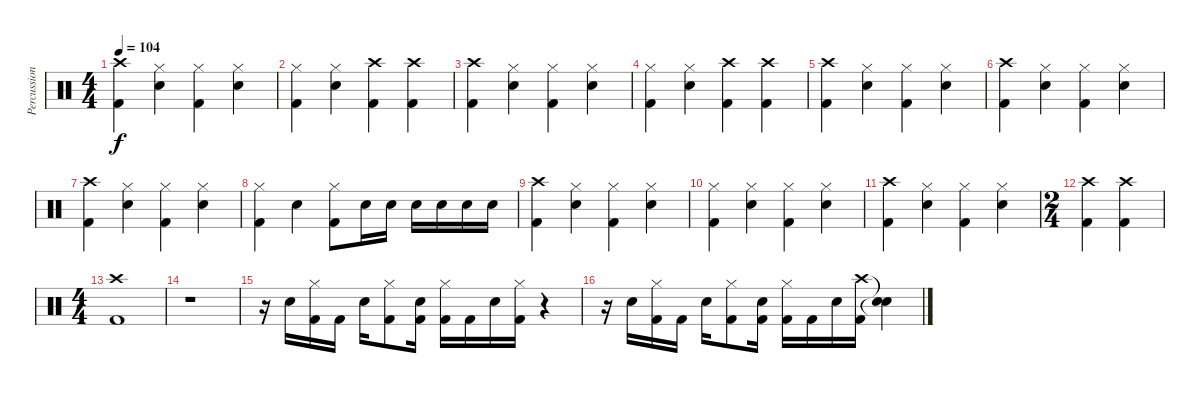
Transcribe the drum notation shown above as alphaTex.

\track ("Percussion" "Percussion") {instrument percussion}
\staff {score}
\articulation defaults
\ts (4 4)
\tempo 104
\clef neutral
\ks c
("Crash high (hit)" "Kick (hit) 2").4{dy f} ("Hi-Hat (closed)" "Snare (hit) 2").4 ("Hi-Hat (closed)" "Kick (hit) 2").4 ("Hi-Hat (closed)" "Snare (hit) 2").4 |
("Hi-Hat (closed)" "Kick (hit) 2").4 ("Hi-Hat (closed)" "Snare (hit) 2").4 ("Crash high (hit)" "Kick (hit) 2").4 ("Crash high (hit)" "Kick (hit) 2").4 |
("Crash high (hit)" "Kick (hit) 2").4 ("Hi-Hat (closed)" "Snare (hit) 2").4 ("Hi-Hat (closed)" "Kick (hit) 2").4 ("Hi-Hat (closed)" "Snare (hit) 2").4 |
("Hi-Hat (closed)" "Kick (hit) 2").4 ("Hi-Hat (closed)" "Snare (hit) 2").4 ("Crash high (hit)" "Kick (hit) 2").4 ("Crash high (hit)" "Kick (hit) 2").4 |
("Crash high (hit)" "Kick (hit) 2").4 ("Hi-Hat (closed)" "Snare (hit) 2").4 ("Hi-Hat (closed)" "Kick (hit) 2").4 ("Hi-Hat (closed)" "Snare (hit) 2").4 |
("Crash high (hit)" "Kick (hit) 2").4 ("Hi-Hat (closed)" "Snare (hit) 2").4 ("Hi-Hat (closed)" "Kick (hit) 2").4 ("Hi-Hat (closed)" "Snare (hit) 2").4 |
("Crash high (hit)" "Kick (hit) 2").4 ("Hi-Hat (closed)" "Snare (hit) 2").4 ("Hi-Hat (closed)" "Kick (hit) 2").4 ("Hi-Hat (closed)" "Snare (hit) 2").4 |
("Hi-Hat (closed)" "Kick (hit) 2").4 "Snare (hit) 2".4 ("Hi-Hat (closed)" "Kick (hit) 2").8 "Snare (hit) 2".16 "Snare (hit) 2".16 "Snare (hit) 2".16 "Snare (hit) 2".16 "Snare (hit) 2".16 "Snare (hit) 2".16 |
("Crash high (hit)" "Kick (hit) 2").4 ("Hi-Hat (closed)" "Snare (hit) 2").4 ("Hi-Hat (closed)" "Kick (hit) 2").4 ("Hi-Hat (closed)" "Snare (hit) 2").4 |
("Hi-Hat (closed)" "Kick (hit) 2").4 ("Hi-Hat (closed)" "Snare (hit) 2").4 ("Hi-Hat (closed)" "Kick (hit) 2").4 ("Hi-Hat (closed)" "Snare (hit) 2").4 |
("Crash high (hit)" "Kick (hit) 2").4 ("Hi-Hat (closed)" "Snare (hit) 2").4 ("Hi-Hat (closed)" "Kick (hit) 2").4 ("Hi-Hat (closed)" "Snare (hit) 2").4 |
\ts (2 4)
("Crash high (hit)" "Kick (hit) 2").4 ("Crash high (hit)" "Kick (hit) 2").4 |
\ts (4 4)
("Crash high (hit)" "Kick (hit) 2").1 |
r.1 |
r.16 "Snare (hit) 2".16 ("Hi-Hat (closed)" "Kick (hit) 2").16 "Kick (hit) 2".16 "Snare (hit) 2".16 ("Hi-Hat (closed)" "Kick (hit) 2").8 ("Snare (hit) 2" "Kick (hit) 2").16 ("Hi-Hat (closed)" "Kick (hit) 2").16 "Kick (hit) 2".16 "Snare (hit) 2".16 ("Hi-Hat (closed)" "Kick (hit) 2").16 r.4 |
r.16 "Snare (hit) 2".16 ("Hi-Hat (closed)" "Kick (hit) 2").16 "Kick (hit) 2".16 "Snare (hit) 2".16 ("Hi-Hat (closed)" "Kick (hit) 2").8 ("Snare (hit) 2" "Kick (hit) 2").16 ("Hi-Hat (closed)" "Kick (hit) 2").16 "Kick (hit) 2".16 "Snare (hit) 2".16 ("Crash high (hit)" "Kick (hit) 2").16 ("Snare (hit)"{t} "Snare (hit)"{t}).4
